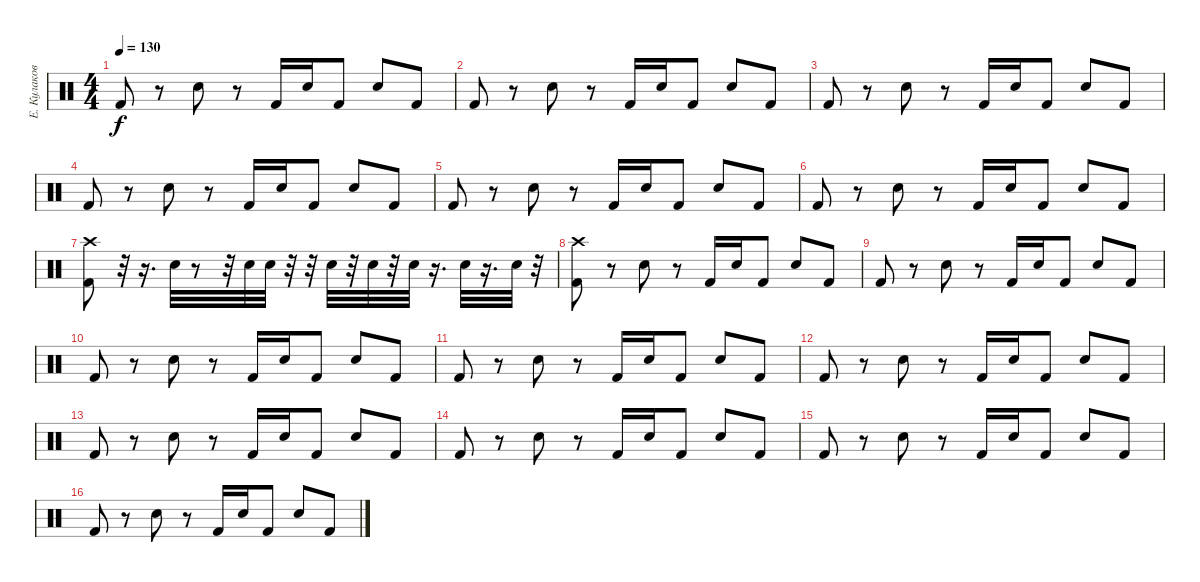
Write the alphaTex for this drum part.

\track ("Е. Кулаков" "Е. Кулаков") {instrument percussion}
\staff {score}
\articulation defaults
\ts (4 4)
\tempo 130
\clef neutral
\ks c "Kick (hit) 2".8{dy f}
r.8 "Electric Snare (hit)".8 r.8 "Kick (hit) 2".16 "Electric Snare (hit)".16 "Kick (hit) 2".8 "Electric Snare (hit)".8 "Kick (hit) 2".8 |
"Kick (hit) 2".8 r.8 "Electric Snare (hit)".8 r.8 "Kick (hit) 2".16 "Electric Snare (hit)".16 "Kick (hit) 2".8 "Electric Snare (hit)".8 "Kick (hit) 2".8 |
"Kick (hit) 2".8 r.8 "Electric Snare (hit)".8 r.8 "Kick (hit) 2".16 "Electric Snare (hit)".16 "Kick (hit) 2".8 "Electric Snare (hit)".8 "Kick (hit) 2".8 |
"Kick (hit) 2".8 r.8 "Electric Snare (hit)".8 r.8 "Kick (hit) 2".16 "Electric Snare (hit)".16 "Kick (hit) 2".8 "Electric Snare (hit)".8 "Kick (hit) 2".8 |
"Kick (hit) 2".8 r.8 "Electric Snare (hit)".8 r.8 "Kick (hit) 2".16 "Electric Snare (hit)".16 "Kick (hit) 2".8 "Electric Snare (hit)".8 "Kick (hit) 2".8 |
"Kick (hit) 2".8 r.8 "Electric Snare (hit)".8 r.8 "Kick (hit) 2".16 "Electric Snare (hit)".16 "Kick (hit) 2".8 "Electric Snare (hit)".8 "Kick (hit) 2".8 |
("Kick (hit) 2" "Crash high (hit)").8 r.32 r.16{d} "Electric Snare (hit)".32 r.8 r.32 "Electric Snare (hit)".32 "Electric Snare (hit)".32 r.32 r.32 "Electric Snare (hit)".32 r.32 "Electric Snare (hit)".32 r.32 "Electric Snare (hit)".32 r.16{d} "Electric Snare (hit)".32 r.16{d} "Electric Snare (hit)".32 r.32 |
("Crash high (hit)" "Kick (hit) 2").8 r.8 "Electric Snare (hit)".8 r.8 "Kick (hit) 2".16 "Electric Snare (hit)".16 "Kick (hit) 2".8 "Electric Snare (hit)".8 "Kick (hit) 2".8 |
"Kick (hit) 2".8 r.8 "Electric Snare (hit)".8 r.8 "Kick (hit) 2".16 "Electric Snare (hit)".16 "Kick (hit) 2".8 "Electric Snare (hit)".8 "Kick (hit) 2".8 |
"Kick (hit) 2".8 r.8 "Electric Snare (hit)".8 r.8 "Kick (hit) 2".16 "Electric Snare (hit)".16 "Kick (hit) 2".8 "Electric Snare (hit)".8 "Kick (hit) 2".8 |
"Kick (hit) 2".8 r.8 "Electric Snare (hit)".8 r.8 "Kick (hit) 2".16 "Electric Snare (hit)".16 "Kick (hit) 2".8 "Electric Snare (hit)".8 "Kick (hit) 2".8 |
"Kick (hit) 2".8 r.8 "Electric Snare (hit)".8 r.8 "Kick (hit) 2".16 "Electric Snare (hit)".16 "Kick (hit) 2".8 "Electric Snare (hit)".8 "Kick (hit) 2".8 |
"Kick (hit) 2".8 r.8 "Electric Snare (hit)".8 r.8 "Kick (hit) 2".16 "Electric Snare (hit)".16 "Kick (hit) 2".8 "Electric Snare (hit)".8 "Kick (hit) 2".8 |
"Kick (hit) 2".8 r.8 "Electric Snare (hit)".8 r.8 "Kick (hit) 2".16 "Electric Snare (hit)".16 "Kick (hit) 2".8 "Electric Snare (hit)".8 "Kick (hit) 2".8 |
"Kick (hit) 2".8 r.8 "Electric Snare (hit)".8 r.8 "Kick (hit) 2".16 "Electric Snare (hit)".16 "Kick (hit) 2".8 "Electric Snare (hit)".8 "Kick (hit) 2".8 |
"Kick (hit) 2".8 r.8 "Electric Snare (hit)".8 r.8 "Kick (hit) 2".16 "Electric Snare (hit)".16 "Kick (hit) 2".8 "Electric Snare (hit)".8 "Kick (hit) 2".8
